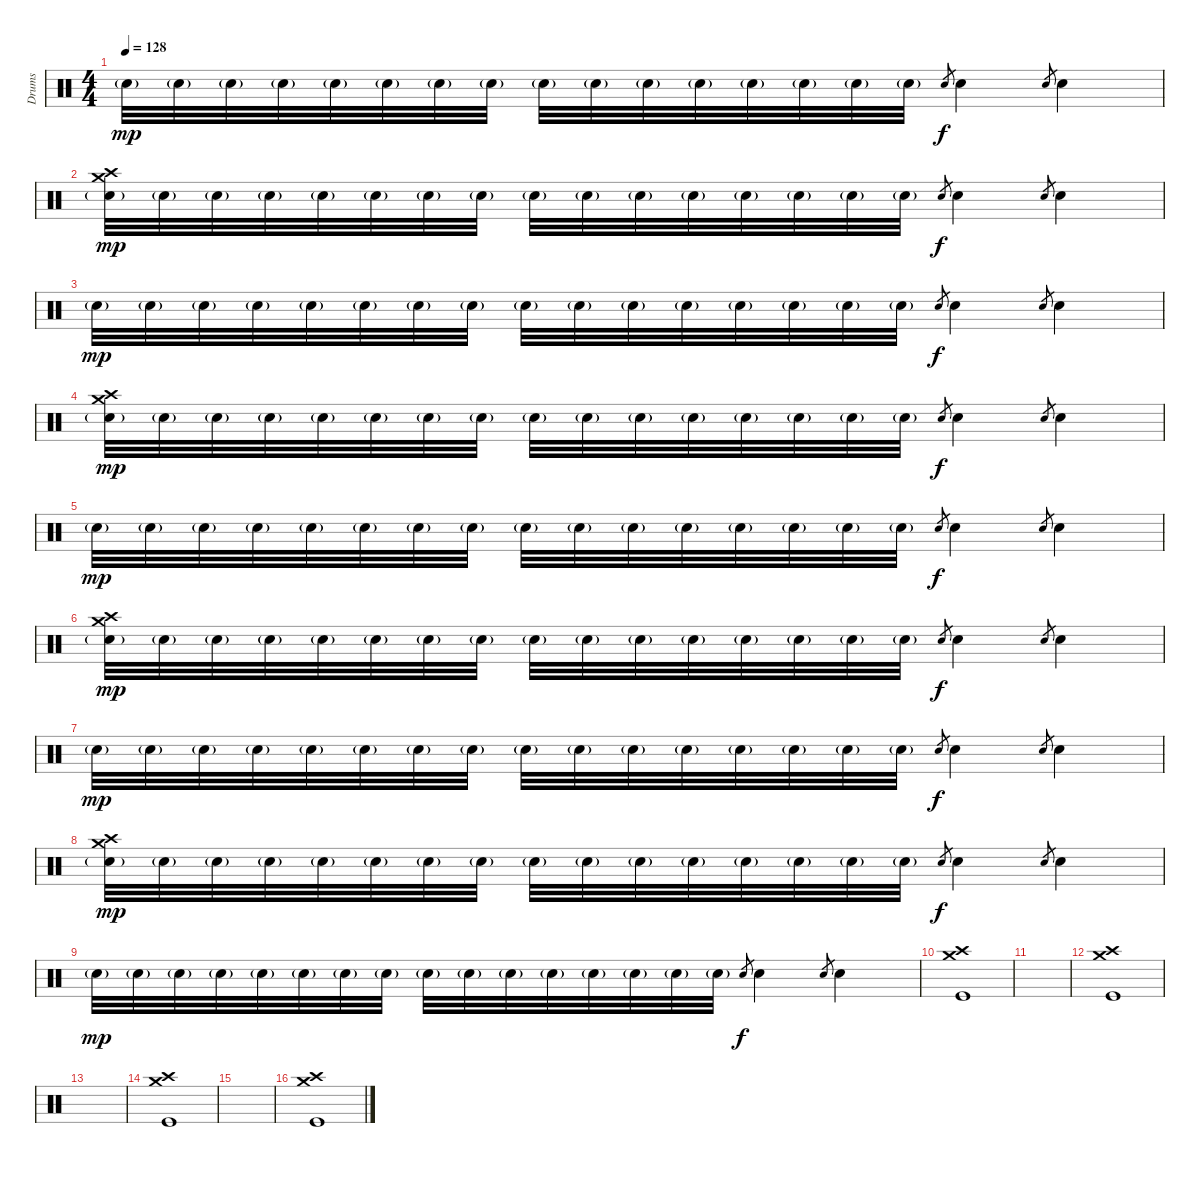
\track ("Drums" "Drums") {instrument percussion}
\staff {score}
\articulation defaults
\ts (4 4)
\tempo 128
\clef neutral
\ks c "Snare (hit) 2"{g}.32{dy mp} "Snare (hit) 2"{g}.32 "Snare (hit) 2"{g}.32 "Snare (hit) 2"{g}.32 "Snare (hit) 2"{g}.32 "Snare (hit) 2"{g}.32 "Snare (hit) 2"{g}.32 "Snare (hit) 2"{g}.32 "Snare (hit) 2"{g}.32 "Snare (hit) 2"{g}.32 "Snare (hit) 2"{g}.32 "Snare (hit) 2"{g}.32 "Snare (hit) 2"{g}.32 "Snare (hit) 2"{g}.32 "Snare (hit) 2"{g}.32 "Snare (hit) 2"{g}.32 "Snare (hit) 2".8{gr dy f} "Snare (hit) 2".4 "Snare (hit) 2".8{gr} "Snare (hit) 2".4
|
("Crash medium (hit)" "Crash high (hit)" "Snare (hit) 2"{g}).32{dy mp} "Snare (hit) 2"{g}.32 "Snare (hit) 2"{g}.32 "Snare (hit) 2"{g}.32 "Snare (hit) 2"{g}.32 "Snare (hit) 2"{g}.32 "Snare (hit) 2"{g}.32 "Snare (hit) 2"{g}.32 "Snare (hit) 2"{g}.32 "Snare (hit) 2"{g}.32 "Snare (hit) 2"{g}.32 "Snare (hit) 2"{g}.32 "Snare (hit) 2"{g}.32 "Snare (hit) 2"{g}.32 "Snare (hit) 2"{g}.32 "Snare (hit) 2"{g}.32 "Snare (hit) 2".8{gr dy f} "Snare (hit) 2".4 "Snare (hit) 2".8{gr} "Snare (hit) 2".4 |
"Snare (hit) 2"{g}.32{dy mp} "Snare (hit) 2"{g}.32 "Snare (hit) 2"{g}.32 "Snare (hit) 2"{g}.32 "Snare (hit) 2"{g}.32 "Snare (hit) 2"{g}.32 "Snare (hit) 2"{g}.32 "Snare (hit) 2"{g}.32 "Snare (hit) 2"{g}.32 "Snare (hit) 2"{g}.32 "Snare (hit) 2"{g}.32 "Snare (hit) 2"{g}.32 "Snare (hit) 2"{g}.32 "Snare (hit) 2"{g}.32 "Snare (hit) 2"{g}.32 "Snare (hit) 2"{g}.32 "Snare (hit) 2".8{gr dy f} "Snare (hit) 2".4 "Snare (hit) 2".8{gr} "Snare (hit) 2".4 |
("Crash medium (hit)" "Crash high (hit)" "Snare (hit) 2"{g}).32{dy mp} "Snare (hit) 2"{g}.32 "Snare (hit) 2"{g}.32 "Snare (hit) 2"{g}.32 "Snare (hit) 2"{g}.32 "Snare (hit) 2"{g}.32 "Snare (hit) 2"{g}.32 "Snare (hit) 2"{g}.32 "Snare (hit) 2"{g}.32 "Snare (hit) 2"{g}.32 "Snare (hit) 2"{g}.32 "Snare (hit) 2"{g}.32 "Snare (hit) 2"{g}.32 "Snare (hit) 2"{g}.32 "Snare (hit) 2"{g}.32 "Snare (hit) 2"{g}.32 "Snare (hit) 2".8{gr dy f} "Snare (hit) 2".4 "Snare (hit) 2".8{gr} "Snare (hit) 2".4 |
"Snare (hit) 2"{g}.32{dy mp} "Snare (hit) 2"{g}.32 "Snare (hit) 2"{g}.32 "Snare (hit) 2"{g}.32 "Snare (hit) 2"{g}.32 "Snare (hit) 2"{g}.32 "Snare (hit) 2"{g}.32 "Snare (hit) 2"{g}.32 "Snare (hit) 2"{g}.32 "Snare (hit) 2"{g}.32 "Snare (hit) 2"{g}.32 "Snare (hit) 2"{g}.32 "Snare (hit) 2"{g}.32 "Snare (hit) 2"{g}.32 "Snare (hit) 2"{g}.32 "Snare (hit) 2"{g}.32 "Snare (hit) 2".8{gr dy f} "Snare (hit) 2".4 "Snare (hit) 2".8{gr} "Snare (hit) 2".4 |
("Crash medium (hit)" "Crash high (hit)" "Snare (hit) 2"{g}).32{dy mp} "Snare (hit) 2"{g}.32 "Snare (hit) 2"{g}.32 "Snare (hit) 2"{g}.32 "Snare (hit) 2"{g}.32 "Snare (hit) 2"{g}.32 "Snare (hit) 2"{g}.32 "Snare (hit) 2"{g}.32 "Snare (hit) 2"{g}.32 "Snare (hit) 2"{g}.32 "Snare (hit) 2"{g}.32 "Snare (hit) 2"{g}.32 "Snare (hit) 2"{g}.32 "Snare (hit) 2"{g}.32 "Snare (hit) 2"{g}.32 "Snare (hit) 2"{g}.32 "Snare (hit) 2".8{gr dy f} "Snare (hit) 2".4 "Snare (hit) 2".8{gr} "Snare (hit) 2".4 |
"Snare (hit) 2"{g}.32{dy mp} "Snare (hit) 2"{g}.32 "Snare (hit) 2"{g}.32 "Snare (hit) 2"{g}.32 "Snare (hit) 2"{g}.32 "Snare (hit) 2"{g}.32 "Snare (hit) 2"{g}.32 "Snare (hit) 2"{g}.32 "Snare (hit) 2"{g}.32 "Snare (hit) 2"{g}.32 "Snare (hit) 2"{g}.32 "Snare (hit) 2"{g}.32 "Snare (hit) 2"{g}.32 "Snare (hit) 2"{g}.32 "Snare (hit) 2"{g}.32 "Snare (hit) 2"{g}.32 "Snare (hit) 2".8{gr dy f} "Snare (hit) 2".4 "Snare (hit) 2".8{gr} "Snare (hit) 2".4 |
("Crash medium (hit)" "Crash high (hit)" "Snare (hit) 2"{g}).32{dy mp} "Snare (hit) 2"{g}.32 "Snare (hit) 2"{g}.32 "Snare (hit) 2"{g}.32 "Snare (hit) 2"{g}.32 "Snare (hit) 2"{g}.32 "Snare (hit) 2"{g}.32 "Snare (hit) 2"{g}.32 "Snare (hit) 2"{g}.32 "Snare (hit) 2"{g}.32 "Snare (hit) 2"{g}.32 "Snare (hit) 2"{g}.32 "Snare (hit) 2"{g}.32 "Snare (hit) 2"{g}.32 "Snare (hit) 2"{g}.32 "Snare (hit) 2"{g}.32 "Snare (hit) 2".8{gr dy f} "Snare (hit) 2".4 "Snare (hit) 2".8{gr} "Snare (hit) 2".4 |
"Snare (hit) 2"{g}.32{dy mp} "Snare (hit) 2"{g}.32 "Snare (hit) 2"{g}.32 "Snare (hit) 2"{g}.32 "Snare (hit) 2"{g}.32 "Snare (hit) 2"{g}.32 "Snare (hit) 2"{g}.32 "Snare (hit) 2"{g}.32 "Snare (hit) 2"{g}.32 "Snare (hit) 2"{g}.32 "Snare (hit) 2"{g}.32 "Snare (hit) 2"{g}.32 "Snare (hit) 2"{g}.32 "Snare (hit) 2"{g}.32 "Snare (hit) 2"{g}.32 "Snare (hit) 2"{g}.32 "Snare (hit) 2".8{gr dy f} "Snare (hit) 2".4 "Snare (hit) 2".8{gr} "Snare (hit) 2".4 |
("Crash medium (hit)" "Crash high (hit)" "Kick (hit)").1{volume 16} |
|
("Crash medium (hit)" "Crash high (hit)" "Kick (hit)").1 |
|
("Crash medium (hit)" "Crash high (hit)" "Kick (hit)").1 |
|
("Crash medium (hit)" "Crash high (hit)" "Kick (hit)").1
